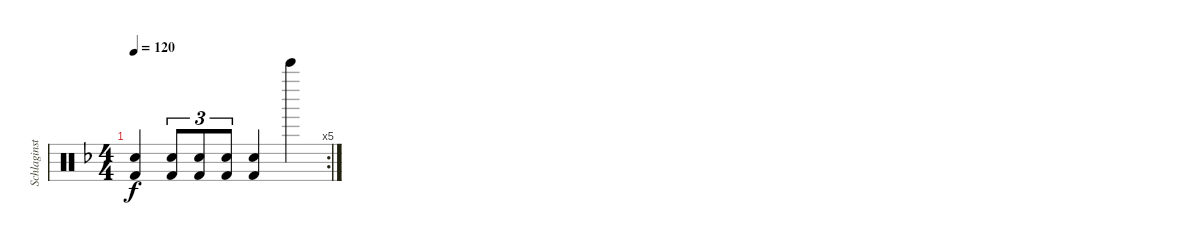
\track ("Schlaginstrumente - Auswahl" "Schlaginst") {instrument percussion}
\staff {score}
\articulation defaults
\rc 5
\ts (4 4)
\tempo 120
\clef neutral
\ks f
("Electric Snare (hit)" "Kick (hit) 2").4{dy f} ("Electric Snare (hit)" "Kick (hit) 2").8{tu (3 2)} ("Electric Snare (hit)" "Kick (hit) 2").8{tu (3 2)} ("Electric Snare (hit)" "Kick (hit) 2").8{tu (3 2)} ("Electric Snare (hit)" "Kick (hit) 2").4 "Bell Tree (hit)".4
